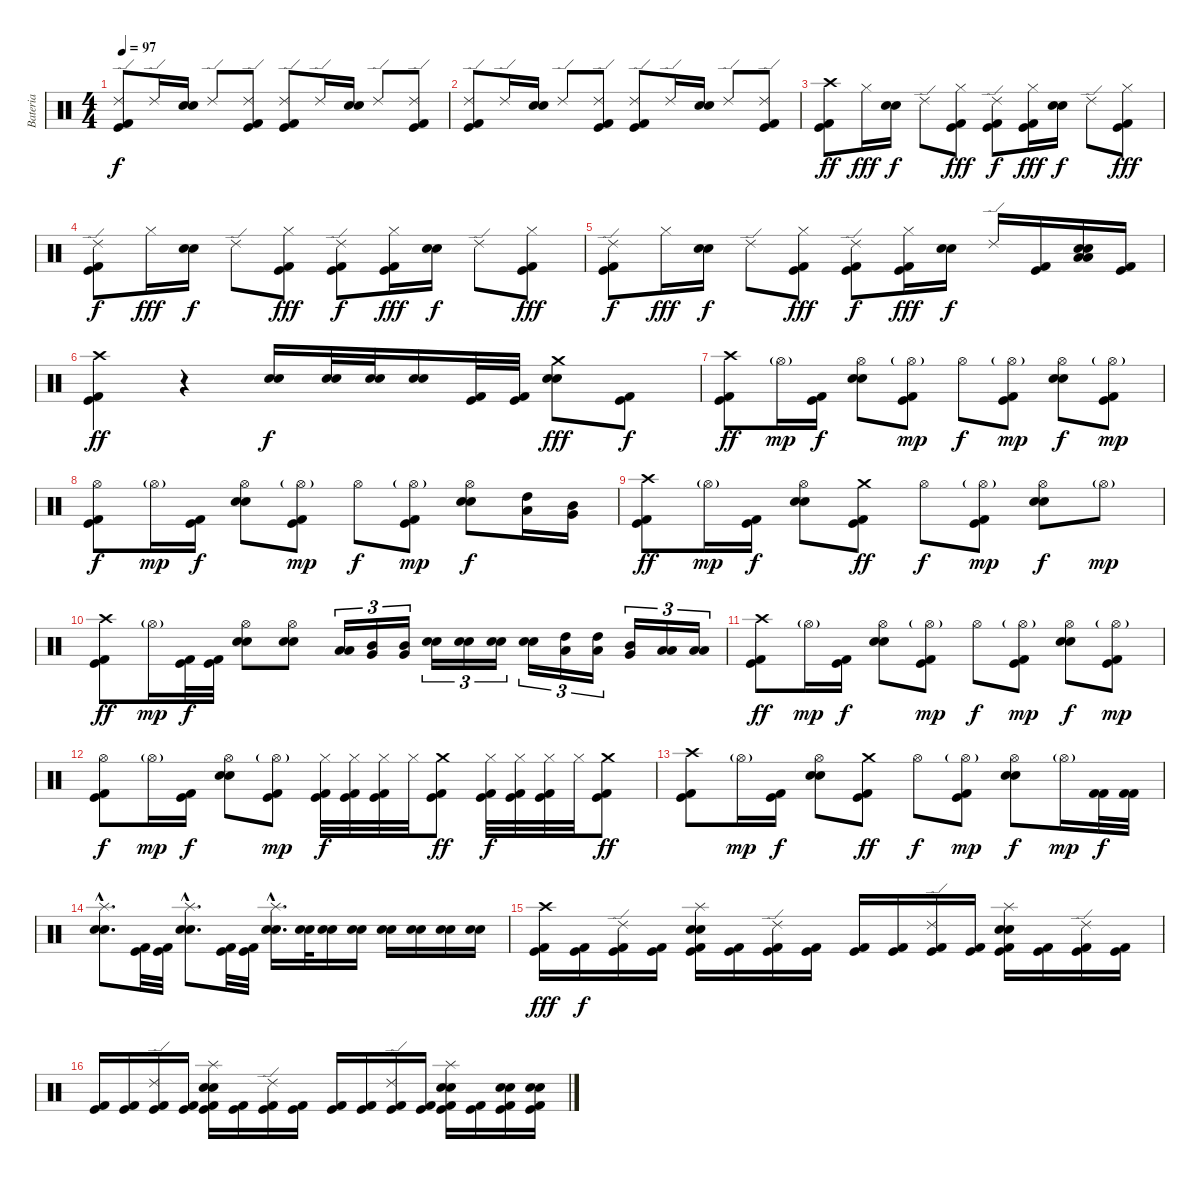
\track ("Bateria" "Bateria") {instrument percussion}
\staff {score}
\articulation defaults
\ts (4 4)
\tempo 97
\clef neutral
\ks c
("Ride (edge) 2" "Kick (hit) 2" "Kick (hit)").8{dy f} "Ride (edge) 2".16 ("Electric Snare (hit)" "Snare (hit) 2").16 "Ride (edge) 2".8 ("Ride (edge) 2" "Kick (hit) 2" "Kick (hit)").8 ("Ride (edge) 2" "Kick (hit) 2" "Kick (hit)").8 "Ride (edge) 2".16 ("Electric Snare (hit)" "Snare (hit) 2").16 "Ride (edge) 2".8 ("Ride (edge) 2" "Kick (hit) 2" "Kick (hit)").8 |
("Ride (edge) 2" "Kick (hit) 2" "Kick (hit)").8 "Ride (edge) 2".16 ("Electric Snare (hit)" "Snare (hit) 2").16 "Ride (edge) 2".8 ("Ride (edge) 2" "Kick (hit) 2" "Kick (hit)").8 ("Ride (edge) 2" "Kick (hit) 2" "Kick (hit)").8 "Ride (edge) 2".16 ("Electric Snare (hit)" "Snare (hit) 2").16 "Ride (edge) 2".8 ("Ride (edge) 2" "Kick (hit) 2" "Kick (hit)").8 |
("Crash high (hit)" "Kick (hit) 2" "Kick (hit)").8{dy ff} "Hi-Hat (closed)".16{dy fff} ("Electric Snare (hit)" "Snare (hit) 2").16{dy f} "Ride (edge) 2".8 ("Hi-Hat (closed)" "Kick (hit) 2" "Kick (hit)").8{dy fff} ("Ride (edge) 2" "Kick (hit) 2" "Kick (hit)").8{dy f} ("Hi-Hat (closed)" "Kick (hit) 2" "Kick (hit)").16{dy fff} ("Electric Snare (hit)" "Snare (hit) 2").16{dy f} "Ride (edge) 2".8 ("Hi-Hat (closed)" "Kick (hit) 2" "Kick (hit)").8{dy fff} |
("Ride (edge) 2" "Kick (hit) 2" "Kick (hit)").8{dy f} "Hi-Hat (closed)".16{dy fff} ("Electric Snare (hit)" "Snare (hit) 2").16{dy f} "Ride (edge) 2".8 ("Hi-Hat (closed)" "Kick (hit) 2" "Kick (hit)").8{dy fff} ("Ride (edge) 2" "Kick (hit) 2" "Kick (hit)").8{dy f} ("Hi-Hat (closed)" "Kick (hit) 2" "Kick (hit)").16{dy fff} ("Electric Snare (hit)" "Snare (hit) 2").16{dy f} "Ride (edge) 2".8 ("Hi-Hat (closed)" "Kick (hit) 2" "Kick (hit)").8{dy fff} |
("Ride (edge) 2" "Kick (hit) 2" "Kick (hit)").8{dy f} "Hi-Hat (closed)".16{dy fff} ("Electric Snare (hit)" "Snare (hit) 2").16{dy f} "Ride (edge) 2".8 ("Hi-Hat (closed)" "Kick (hit) 2" "Kick (hit)").8{dy fff} ("Ride (edge) 2" "Kick (hit) 2" "Kick (hit)").8{dy f} ("Hi-Hat (closed)" "Kick (hit) 2" "Kick (hit)").16{dy fff} ("Electric Snare (hit)" "Snare (hit) 2").16{dy f} "Ride (edge) 2".16 ("Kick (hit) 2" "Kick (hit)").16 ("Electric Snare (hit)" "Snare (hit) 2" "Low Tom (hit)" "Low Floor Tom (hit)").16 ("Kick (hit) 2" "Kick (hit)").16 |
("Crash high (hit)" "Kick (hit) 2" "Kick (hit)").4{dy ff} r.4 ("Electric Snare (hit)" "Snare (hit) 2").16{dy f} ("Electric Snare (hit)" "Snare (hit) 2").32 ("Electric Snare (hit)" "Snare (hit) 2").32 ("Electric Snare (hit)" "Snare (hit) 2").16 ("Kick (hit) 2" "Kick (hit)").32 ("Kick (hit) 2" "Kick (hit)").32 ("Crash medium (hit)" "Electric Snare (hit)" "Snare (hit) 2").8{dy fff} ("Kick (hit) 2" "Kick (hit)").8{dy f} |
("Crash high (hit)" "Kick (hit) 2" "Kick (hit)").8{dy ff} "Hi-Hat (open)"{g}.16{dy mp} ("Kick (hit) 2" "Kick (hit)").16{dy f} ("Hi-Hat (open)" "Electric Snare (hit)" "Snare (hit) 2").8 ("Hi-Hat (open)"{g} "Kick (hit) 2" "Kick (hit)").8{dy mp} "Hi-Hat (open)".8{dy f} ("Hi-Hat (open)"{g} "Kick (hit) 2" "Kick (hit)").8{dy mp} ("Hi-Hat (open)" "Electric Snare (hit)" "Snare (hit) 2").8{dy f} ("Hi-Hat (open)"{g} "Kick (hit) 2" "Kick (hit)").8{dy mp} |
("Hi-Hat (open)" "Kick (hit) 2" "Kick (hit)").8{dy f} "Hi-Hat (open)"{g}.16{dy mp} ("Kick (hit) 2" "Kick (hit)").16{dy f} ("Hi-Hat (open)" "Electric Snare (hit)" "Snare (hit) 2").8 ("Hi-Hat (open)"{g} "Kick (hit) 2" "Kick (hit)").8{dy mp} "Hi-Hat (open)".8{dy f} ("Hi-Hat (open)"{g} "Kick (hit) 2" "Kick (hit)").8{dy mp} ("Hi-Hat (open)" "Electric Snare (hit)" "Snare (hit) 2").8{dy f} ("High Tom (hit)" "Low Tom (hit)").16 ("Mid Tom (hit)" "Very Low Tom (hit)").16 |
("Crash high (hit)" "Kick (hit) 2" "Kick (hit)").8{dy ff} "Hi-Hat (open)"{g}.16{dy mp} ("Kick (hit) 2" "Kick (hit)").16{dy f} ("Hi-Hat (open)" "Electric Snare (hit)" "Snare (hit) 2").8 ("Crash medium (hit)" "Kick (hit) 2" "Kick (hit)").8{dy ff} "Hi-Hat (open)".8{dy f} ("Hi-Hat (open)"{g} "Kick (hit) 2" "Kick (hit)").8{dy mp} ("Hi-Hat (open)" "Electric Snare (hit)" "Snare (hit) 2").8{dy f} "Hi-Hat (open)"{g}.8{dy mp} |
("Crash high (hit)" "Kick (hit) 2" "Kick (hit)").8{dy ff} "Hi-Hat (open)"{g}.16{dy mp} ("Kick (hit) 2" "Kick (hit)").32{dy f} ("Kick (hit) 2" "Kick (hit)").32 ("Hi-Hat (open)" "Electric Snare (hit)" "Snare (hit) 2").8 ("Hi-Hat (open)" "Electric Snare (hit)" "Snare (hit) 2").8 ("Low Tom (hit)" "Low Floor Tom (hit)").16{tu (3 2)} ("Mid Tom (hit)" "Very Low Tom (hit)").16{tu (3 2)} ("Mid Tom (hit)" "Very Low Tom (hit)").16{tu (3 2)} ("Electric Snare (hit)" "Snare (hit) 2").16{tu (3 2)} ("Electric Snare (hit)" "Snare (hit) 2").16{tu (3 2)} ("Electric Snare (hit)" "Snare (hit) 2").16{tu (3 2)} ("Electric Snare (hit)" "Snare (hit) 2").16{tu (3 2)} ("High Tom (hit)" "Low Tom (hit)").16{tu (3 2)} ("High Tom (hit)" "Low Tom (hit)").16{tu (3 2)} ("Mid Tom (hit)" "Very Low Tom (hit)").16{tu (3 2)} ("Low Tom (hit)" "Low Floor Tom (hit)").16{tu (3 2)} ("Low Tom (hit)" "Low Floor Tom (hit)").16{tu (3 2)} |
("Crash high (hit)" "Kick (hit) 2" "Kick (hit)").8{dy ff} "Hi-Hat (open)"{g}.16{dy mp} ("Kick (hit) 2" "Kick (hit)").16{dy f} ("Hi-Hat (open)" "Electric Snare (hit)" "Snare (hit) 2").8 ("Hi-Hat (open)"{g} "Kick (hit) 2" "Kick (hit)").8{dy mp} "Hi-Hat (open)".8{dy f} ("Hi-Hat (open)"{g} "Kick (hit) 2" "Kick (hit)").8{dy mp} ("Hi-Hat (open)" "Electric Snare (hit)" "Snare (hit) 2").8{dy f} ("Hi-Hat (open)"{g} "Kick (hit) 2" "Kick (hit)").8{dy mp} |
("Hi-Hat (open)" "Kick (hit) 2" "Kick (hit)").8{dy f} "Hi-Hat (open)"{g}.16{dy mp} ("Kick (hit) 2" "Kick (hit)").16{dy f} ("Hi-Hat (open)" "Electric Snare (hit)" "Snare (hit) 2").8 ("Hi-Hat (open)"{g} "Kick (hit) 2" "Kick (hit)").8{dy mp} ("Hi-Hat (closed)" "Kick (hit) 2" "Kick (hit)").32{dy f} ("Hi-Hat (closed)" "Kick (hit) 2" "Kick (hit)").32 ("Hi-Hat (closed)" "Kick (hit) 2" "Kick (hit)").32 "Hi-Hat (closed)".32 ("Crash medium (hit)" "Kick (hit) 2" "Kick (hit)").8{dy ff} ("Hi-Hat (closed)" "Kick (hit) 2" "Kick (hit)").32{dy f} ("Hi-Hat (closed)" "Kick (hit) 2" "Kick (hit)").32 ("Hi-Hat (closed)" "Kick (hit) 2" "Kick (hit)").32 "Hi-Hat (closed)".32 ("Crash medium (hit)" "Kick (hit) 2" "Kick (hit)").8{dy ff} |
("Crash high (hit)" "Kick (hit) 2" "Kick (hit)").8 "Hi-Hat (open)"{g}.16{dy mp} ("Kick (hit) 2" "Kick (hit)").16{dy f} ("Hi-Hat (open)" "Electric Snare (hit)" "Snare (hit) 2").8 ("Crash medium (hit)" "Kick (hit) 2" "Kick (hit)").8{dy ff} "Hi-Hat (open)".8{dy f} ("Hi-Hat (open)"{g} "Kick (hit) 2" "Kick (hit)").8{dy mp} ("Hi-Hat (open)" "Electric Snare (hit)" "Snare (hit) 2").8{dy f} "Hi-Hat (open)"{g}.16{dy mp} ("Kick (hit) 2" "Kick (hit) 2").32{dy f} ("Kick (hit) 2" "Kick (hit) 2").32 |
("Splash (hit)"{hac} "Electric Snare (hit)"{hac} "Snare (hit) 2"{hac}).8{d} ("Kick (hit) 2" "Kick (hit)").32 ("Kick (hit) 2" "Kick (hit)").32 ("Splash (hit)"{hac} "Electric Snare (hit)"{hac} "Snare (hit) 2"{hac}).8{d} ("Kick (hit) 2" "Kick (hit)").32 ("Kick (hit) 2" "Kick (hit)").32 ("Splash (hit)"{hac} "Electric Snare (hit)"{hac} "Snare (hit) 2"{hac}).16{d} ("Electric Snare (hit)" "Snare (hit) 2").32 ("Electric Snare (hit)" "Snare (hit) 2").16 ("Electric Snare (hit)" "Snare (hit) 2").16 ("Electric Snare (hit)" "Snare (hit) 2").16 ("Electric Snare (hit)" "Snare (hit) 2").16 ("Electric Snare (hit)" "Snare (hit) 2").16 ("Electric Snare (hit)" "Snare (hit) 2").16 |
("Crash high (hit)" "Kick (hit) 2" "Kick (hit)").16{dy fff} ("Kick (hit) 2" "Kick (hit)").16{dy f} ("Ride (edge) 2" "Kick (hit) 2" "Kick (hit)").16 ("Kick (hit) 2" "Kick (hit)").16 ("Splash (hit)" "Electric Snare (hit)" "Snare (hit) 2" "Kick (hit) 2" "Kick (hit)").16 ("Kick (hit) 2" "Kick (hit)").16 ("Ride (edge) 2" "Kick (hit) 2" "Kick (hit)").16 ("Kick (hit) 2" "Kick (hit)").16 ("Kick (hit) 2" "Kick (hit)").16 ("Kick (hit) 2" "Kick (hit)").16 ("Ride (edge) 2" "Kick (hit) 2" "Kick (hit)").16 ("Kick (hit) 2" "Kick (hit)").16 ("Splash (hit)" "Electric Snare (hit)" "Snare (hit) 2" "Kick (hit) 2" "Kick (hit)").16 ("Kick (hit) 2" "Kick (hit)").16 ("Ride (edge) 2" "Kick (hit) 2" "Kick (hit)").16 ("Kick (hit) 2" "Kick (hit)").16 |
("Kick (hit) 2" "Kick (hit)").16 ("Kick (hit) 2" "Kick (hit)").16 ("Ride (edge) 2" "Kick (hit) 2" "Kick (hit)").16 ("Kick (hit) 2" "Kick (hit)").16 ("Splash (hit)" "Electric Snare (hit)" "Snare (hit) 2" "Kick (hit) 2" "Kick (hit)").16 ("Kick (hit) 2" "Kick (hit)").16 ("Ride (edge) 2" "Kick (hit) 2" "Kick (hit)").16 ("Kick (hit) 2" "Kick (hit)").16 ("Kick (hit) 2" "Kick (hit)").16 ("Kick (hit) 2" "Kick (hit)").16 ("Ride (edge) 2" "Kick (hit) 2" "Kick (hit)").16 ("Kick (hit) 2" "Kick (hit)").16 ("Splash (hit)" "Electric Snare (hit)" "Snare (hit) 2" "Kick (hit) 2" "Kick (hit)").16 ("Kick (hit) 2" "Kick (hit)").16 ("Electric Snare (hit)" "Snare (hit) 2" "Kick (hit) 2" "Kick (hit)").16 ("Electric Snare (hit)" "Snare (hit) 2" "Kick (hit) 2" "Kick (hit)").16
